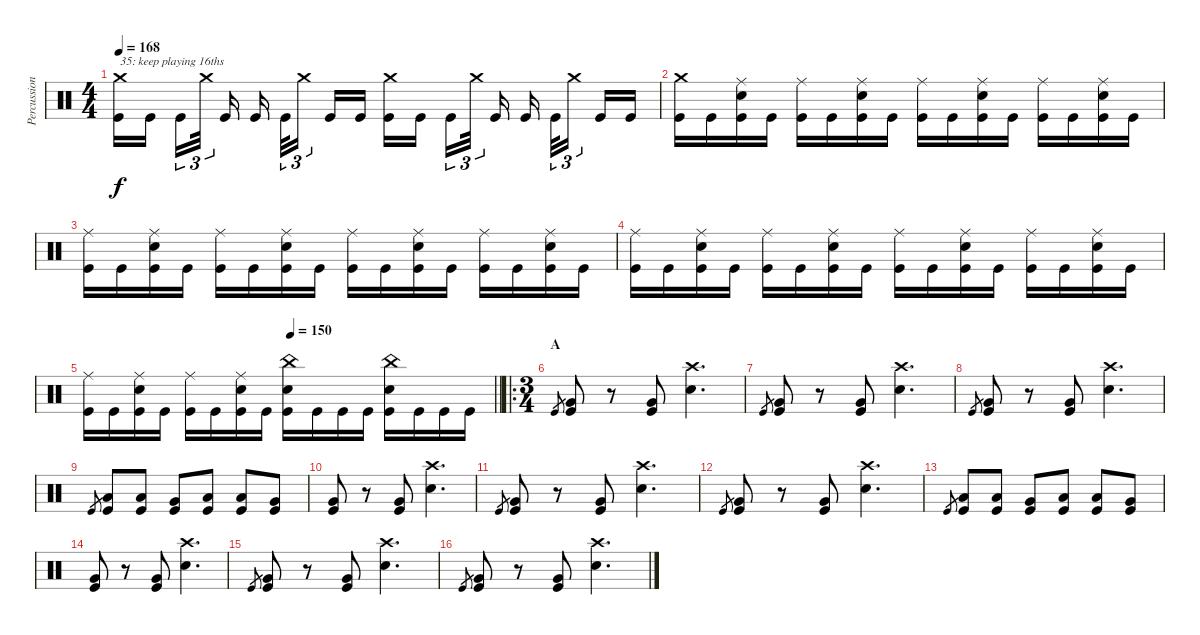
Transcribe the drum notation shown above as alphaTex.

\track ("Percussion" "Percussion") {instrument percussion}
\staff {score}
\articulation defaults
\ts (4 4)
\tempo 168
\clef neutral
\ks c
("Crash medium (hit)" "Kick (hit)").16{txt "35: keep playing 16ths" dy f} "Kick (hit)".16{beam splitsecondary} "Kick (hit)".16{tu (3 2)} "Crash medium (hit)".32{tu (3 2) beam splitsecondary} "Kick (hit)".16 "Kick (hit)".16{beam splitsecondary} "Kick (hit)".32{tu (3 2)} "Crash medium (hit)".16{tu (3 2) beam splitsecondary} "Kick (hit)".16 "Kick (hit)".16 ("Crash medium (hit)" "Kick (hit)").16 "Kick (hit)".16{beam splitsecondary} "Kick (hit)".16{tu (3 2)} "Crash medium (hit)".32{tu (3 2) beam splitsecondary} "Kick (hit)".16 "Kick (hit)".16{beam splitsecondary} "Kick (hit)".32{tu (3 2)} "Crash medium (hit)".16{tu (3 2) beam splitsecondary} "Kick (hit)".16 "Kick (hit)".16 |
("Crash medium (hit)" "Kick (hit)").16 "Kick (hit)".16 ("Ride (middle)" "Snare (hit) 2" "Kick (hit)").16 "Kick (hit)".16 ("Ride (middle)" "Kick (hit)").16 "Kick (hit)".16 ("Ride (middle)" "Snare (hit) 2" "Kick (hit)").16 "Kick (hit)".16 ("Ride (middle)" "Kick (hit)").16 "Kick (hit)".16 ("Ride (middle)" "Snare (hit) 2" "Kick (hit)").16 "Kick (hit)".16 ("Ride (middle)" "Kick (hit)").16 "Kick (hit)".16 ("Ride (middle)" "Snare (hit) 2" "Kick (hit)").16 "Kick (hit)".16 |
("Ride (middle)" "Kick (hit)").16 "Kick (hit)".16 ("Ride (middle)" "Snare (hit) 2" "Kick (hit)").16 "Kick (hit)".16 ("Ride (middle)" "Kick (hit)").16 "Kick (hit)".16 ("Ride (middle)" "Snare (hit) 2" "Kick (hit)").16 "Kick (hit)".16 ("Ride (middle)" "Kick (hit)").16 "Kick (hit)".16 ("Ride (middle)" "Snare (hit) 2" "Kick (hit)").16 "Kick (hit)".16 ("Ride (middle)" "Kick (hit)").16 "Kick (hit)".16 ("Ride (middle)" "Snare (hit) 2" "Kick (hit)").16 "Kick (hit)".16 |
("Ride (middle)" "Kick (hit)").16 "Kick (hit)".16 ("Ride (middle)" "Snare (hit) 2" "Kick (hit)").16 "Kick (hit)".16 ("Ride (middle)" "Kick (hit)").16 "Kick (hit)".16 ("Ride (middle)" "Snare (hit) 2" "Kick (hit)").16 "Kick (hit)".16 ("Ride (middle)" "Kick (hit)").16 "Kick (hit)".16 ("Ride (middle)" "Snare (hit) 2" "Kick (hit)").16 "Kick (hit)".16 ("Ride (middle)" "Kick (hit)").16 "Kick (hit)".16 ("Ride (middle)" "Snare (hit) 2" "Kick (hit)").16 "Kick (hit)".16 |
\tempo (150 0.5)
\barLineRight lightlight
("Ride (middle)" "Kick (hit)").16 "Kick (hit)".16 ("Ride (middle)" "Snare (hit) 2" "Kick (hit)").16 "Kick (hit)".16 ("Ride (middle)" "Kick (hit)").16 "Kick (hit)".16 ("Ride (middle)" "Snare (hit) 2" "Kick (hit)").16 "Kick (hit)".16 ("China (hit)" "Snare (hit) 2" "Kick (hit)").16 "Kick (hit)".16 "Kick (hit)".16 "Kick (hit)".16 ("China (hit)" "Snare (hit) 2" "Kick (hit)").16 "Kick (hit)".16 "Kick (hit)".16 "Kick (hit)".16 |
\ro
\ts (3 4)
\section ("" "A")
"Kick (hit)".8{gr} ("Very Low Tom (hit)" "Kick (hit)").8 r.8 ("Very Low Tom (hit)" "Kick (hit)").8 ("Crash high (hit)" "Snare (hit) 2").4{d} |
"Kick (hit)".8{gr} ("Very Low Tom (hit)" "Kick (hit)").8 r.8 ("Very Low Tom (hit)" "Kick (hit)").8 ("Crash high (hit)" "Snare (hit) 2").4{d} |
"Kick (hit)".8{gr} ("Very Low Tom (hit)" "Kick (hit)").8 r.8 ("Very Low Tom (hit)" "Kick (hit)").8 ("Crash high (hit)" "Snare (hit) 2").4{d} |
"Kick (hit)".8{gr} ("Low Tom (hit)" "Kick (hit)").8 ("Low Tom (hit)" "Kick (hit)").8 ("Very Low Tom (hit)" "Kick (hit)").8 ("Low Tom (hit)" "Kick (hit)").8 ("Low Tom (hit)" "Kick (hit)").8 ("Very Low Tom (hit)" "Kick (hit)").8 |
("Very Low Tom (hit)" "Kick (hit)").8 r.8 ("Very Low Tom (hit)" "Kick (hit)").8 ("Crash high (hit)" "Snare (hit) 2").4{d} |
"Kick (hit)".8{gr} ("Very Low Tom (hit)" "Kick (hit)").8 r.8 ("Very Low Tom (hit)" "Kick (hit)").8 ("Crash high (hit)" "Snare (hit) 2").4{d} |
"Kick (hit)".8{gr} ("Very Low Tom (hit)" "Kick (hit)").8 r.8 ("Very Low Tom (hit)" "Kick (hit)").8 ("Crash high (hit)" "Snare (hit) 2").4{d} |
"Kick (hit)".8{gr} ("Low Tom (hit)" "Kick (hit)").8 ("Low Tom (hit)" "Kick (hit)").8 ("Very Low Tom (hit)" "Kick (hit)").8 ("Low Tom (hit)" "Kick (hit)").8 ("Low Tom (hit)" "Kick (hit)").8 ("Very Low Tom (hit)" "Kick (hit)").8 |
("Very Low Tom (hit)" "Kick (hit)").8 r.8 ("Very Low Tom (hit)" "Kick (hit)").8 ("Crash high (hit)" "Snare (hit) 2").4{d} |
"Kick (hit)".8{gr} ("Very Low Tom (hit)" "Kick (hit)").8 r.8 ("Very Low Tom (hit)" "Kick (hit)").8 ("Crash high (hit)" "Snare (hit) 2").4{d} |
"Kick (hit)".8{gr} ("Very Low Tom (hit)" "Kick (hit)").8 r.8 ("Very Low Tom (hit)" "Kick (hit)").8 ("Crash high (hit)" "Snare (hit) 2").4{d}
